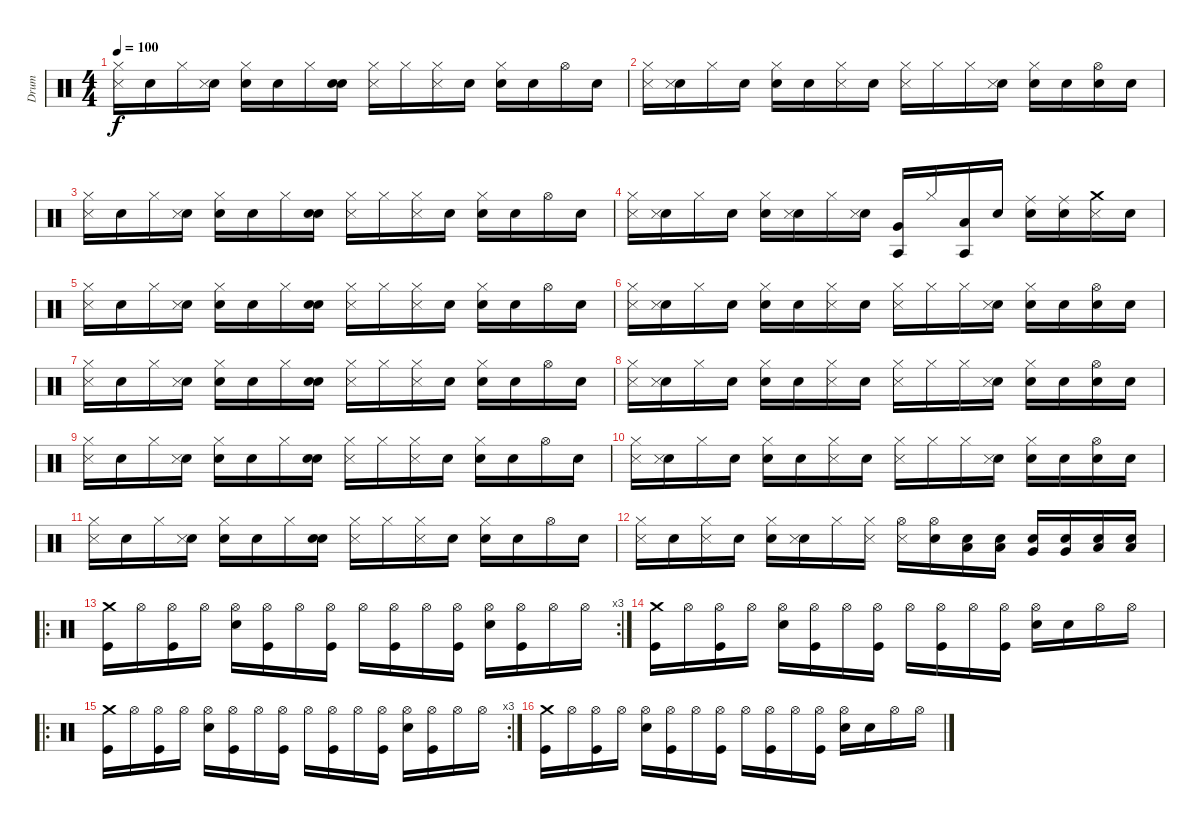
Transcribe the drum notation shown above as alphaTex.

\track ("Drum" "Drum") {instrument percussion}
\staff {score}
\articulation defaults
\ts (4 4)
\tempo 100
\clef neutral
\ks c
("Hi-Hat (closed)" "Metronome (hit)").16{dy f} "Snare (hit)".16 "Hi-Hat (closed)".16 ("Snare (hit)" "Metronome (hit)").16 ("Hi-Hat (closed)" "Metronome (bell)").16 "Snare (hit)".16 "Hi-Hat (closed)".16 ("Snare (hit)" "Metronome (bell)").16 ("Hi-Hat (closed)" "Metronome (hit)").16 "Hi-Hat (closed)".16 ("Hi-Hat (closed)" "Metronome (hit)").16 "Snare (hit)".16 ("Hi-Hat (closed)" "Metronome (bell)").16 "Snare (hit)".16 "Hi-Hat (open)".16 "Snare (hit)".16 |
("Hi-Hat (closed)" "Metronome (hit)").16 ("Snare (hit)" "Metronome (hit)").16 "Hi-Hat (closed)".16 "Snare (hit)".16 ("Hi-Hat (closed)" "Metronome (bell)").16 "Snare (hit)".16 ("Hi-Hat (closed)" "Metronome (hit)").16 "Snare (hit)".16 ("Hi-Hat (closed)" "Metronome (hit)").16 "Hi-Hat (closed)".16 "Hi-Hat (closed)".16 ("Snare (hit)" "Metronome (hit)").16 ("Hi-Hat (closed)" "Metronome (bell)").16 "Snare (hit)".16 ("Hi-Hat (open)" "Metronome (bell)").16 "Snare (hit)".16 |
("Hi-Hat (closed)" "Metronome (hit)").16 "Snare (hit)".16 "Hi-Hat (closed)".16 ("Snare (hit)" "Metronome (hit)").16 ("Hi-Hat (closed)" "Metronome (bell)").16 "Snare (hit)".16 "Hi-Hat (closed)".16 ("Snare (hit)" "Metronome (bell)").16 ("Hi-Hat (closed)" "Metronome (hit)").16 "Hi-Hat (closed)".16 ("Hi-Hat (closed)" "Metronome (hit)").16 "Snare (hit)".16 ("Hi-Hat (closed)" "Metronome (bell)").16 "Snare (hit)".16 "Hi-Hat (open)".16 "Snare (hit)".16 |
("Hi-Hat (closed)" "Metronome (hit)").16 ("Snare (hit)" "Metronome (hit)").16 "Hi-Hat (closed)".16 "Snare (hit)".16 ("Hi-Hat (closed)" "Metronome (bell)").16 ("Snare (hit)" "Metronome (hit)").16 "Hi-Hat (closed)".16 ("Snare (hit)" "Metronome (hit)").16 ("Agogo tow (hit)" "Very Low Tom (hit)").16 "Hi-Hat (closed)".16 ("Agogo tow (hit)" "Low Floor Tom (hit)").16 "Snare (hit)".16 ("Ride (middle)" "Metronome (bell)").16 ("Ride (middle)" "Metronome (bell)").16 ("Crash medium (hit)" "Metronome (hit)").16 "Snare (hit)".16 |
("Hi-Hat (closed)" "Metronome (hit)").16 "Snare (hit)".16 "Hi-Hat (closed)".16 ("Snare (hit)" "Metronome (hit)").16 ("Hi-Hat (closed)" "Metronome (bell)").16 "Snare (hit)".16 "Hi-Hat (closed)".16 ("Snare (hit)" "Metronome (bell)").16 ("Hi-Hat (closed)" "Metronome (hit)").16 "Hi-Hat (closed)".16 ("Hi-Hat (closed)" "Metronome (hit)").16 "Snare (hit)".16 ("Hi-Hat (closed)" "Metronome (bell)").16 "Snare (hit)".16 "Hi-Hat (open)".16 "Snare (hit)".16 |
("Hi-Hat (closed)" "Metronome (hit)").16 ("Snare (hit)" "Metronome (hit)").16 "Hi-Hat (closed)".16 "Snare (hit)".16 ("Hi-Hat (closed)" "Metronome (bell)").16 "Snare (hit)".16 ("Hi-Hat (closed)" "Metronome (hit)").16 "Snare (hit)".16 ("Hi-Hat (closed)" "Metronome (hit)").16 "Hi-Hat (closed)".16 "Hi-Hat (closed)".16 ("Snare (hit)" "Metronome (hit)").16 ("Hi-Hat (closed)" "Metronome (bell)").16 "Snare (hit)".16 ("Hi-Hat (open)" "Metronome (bell)").16 "Snare (hit)".16 |
("Hi-Hat (closed)" "Metronome (hit)").16 "Snare (hit)".16 "Hi-Hat (closed)".16 ("Snare (hit)" "Metronome (hit)").16 ("Hi-Hat (closed)" "Metronome (bell)").16 "Snare (hit)".16 "Hi-Hat (closed)".16 ("Snare (hit)" "Metronome (bell)").16 ("Hi-Hat (closed)" "Metronome (hit)").16 "Hi-Hat (closed)".16 ("Hi-Hat (closed)" "Metronome (hit)").16 "Snare (hit)".16 ("Hi-Hat (closed)" "Metronome (bell)").16 "Snare (hit)".16 "Hi-Hat (open)".16 "Snare (hit)".16 |
("Hi-Hat (closed)" "Metronome (hit)").16 ("Snare (hit)" "Metronome (hit)").16 "Hi-Hat (closed)".16 "Snare (hit)".16 ("Hi-Hat (closed)" "Metronome (bell)").16 "Snare (hit)".16 ("Hi-Hat (closed)" "Metronome (hit)").16 "Snare (hit)".16 ("Hi-Hat (closed)" "Metronome (hit)").16 "Hi-Hat (closed)".16 "Hi-Hat (closed)".16 ("Snare (hit)" "Metronome (hit)").16 ("Hi-Hat (closed)" "Metronome (bell)").16 "Snare (hit)".16 ("Hi-Hat (open)" "Metronome (bell)").16 "Snare (hit)".16 |
("Hi-Hat (closed)" "Metronome (hit)").16 "Snare (hit)".16 "Hi-Hat (closed)".16 ("Snare (hit)" "Metronome (hit)").16 ("Hi-Hat (closed)" "Metronome (bell)").16 "Snare (hit)".16 "Hi-Hat (closed)".16 ("Snare (hit)" "Metronome (bell)").16 ("Hi-Hat (closed)" "Metronome (hit)").16 "Hi-Hat (closed)".16 ("Hi-Hat (closed)" "Metronome (hit)").16 "Snare (hit)".16 ("Hi-Hat (closed)" "Metronome (bell)").16 "Snare (hit)".16 "Hi-Hat (open)".16 "Snare (hit)".16 |
("Hi-Hat (closed)" "Metronome (hit)").16 ("Snare (hit)" "Metronome (hit)").16 "Hi-Hat (closed)".16 "Snare (hit)".16 ("Hi-Hat (closed)" "Metronome (bell)").16 "Snare (hit)".16 ("Hi-Hat (closed)" "Metronome (hit)").16 "Snare (hit)".16 ("Hi-Hat (closed)" "Metronome (hit)").16 "Hi-Hat (closed)".16 "Hi-Hat (closed)".16 ("Snare (hit)" "Metronome (hit)").16 ("Hi-Hat (closed)" "Metronome (bell)").16 "Snare (hit)".16 ("Hi-Hat (open)" "Metronome (bell)").16 "Snare (hit)".16 |
("Hi-Hat (closed)" "Metronome (hit)").16 "Snare (hit)".16 "Hi-Hat (closed)".16 ("Snare (hit)" "Metronome (hit)").16 ("Hi-Hat (closed)" "Metronome (bell)").16 "Snare (hit)".16 "Hi-Hat (closed)".16 ("Snare (hit)" "Metronome (bell)").16 ("Hi-Hat (closed)" "Metronome (hit)").16 "Hi-Hat (closed)".16 ("Hi-Hat (closed)" "Metronome (hit)").16 "Snare (hit)".16 ("Hi-Hat (closed)" "Metronome (bell)").16 "Snare (hit)".16 "Hi-Hat (open)".16 "Snare (hit)".16 |
("Hi-Hat (closed)" "Metronome (hit)").16 "Snare (hit)".16 ("Hi-Hat (closed)" "Metronome (hit)").16 "Snare (hit)".16 ("Hi-Hat (closed)" "Metronome (bell)").16 ("Snare (hit)" "Metronome (hit)").16 "Hi-Hat (closed)".16 ("Hi-Hat (closed)" "Metronome (hit)").16 ("Hi-Hat (open)" "Metronome (hit)").16 ("Hi-Hat (open)" "Metronome (bell)").16 ("Snare (hit)" "Low Tom (hit)").16 ("Snare (hit)" "Low Tom (hit)").16 ("Snare (hit)" "Very Low Tom (hit)").16 ("Snare (hit)" "Very Low Tom (hit)").16 ("Snare (hit)" "Low Floor Tom (hit)").16 ("Snare (hit)" "Low Floor Tom (hit)").16 |
\ro
\rc 3
("Crash medium (hit)" "Kick (hit)").16 "Hi-Hat (open)".16 ("Hi-Hat (open)" "Kick (hit)").16 "Hi-Hat (open)".16 ("Hi-Hat (open)" "Electric Snare (hit)").16 ("Hi-Hat (open)" "Kick (hit)").16 "Hi-Hat (open)".16 ("Hi-Hat (open)" "Kick (hit)").16 "Hi-Hat (open)".16 ("Hi-Hat (open)" "Kick (hit)").16 "Hi-Hat (open)".16 ("Hi-Hat (open)" "Kick (hit)").16 ("Hi-Hat (open)" "Electric Snare (hit)").16 ("Hi-Hat (open)" "Kick (hit)").16 "Hi-Hat (open)".16 "Hi-Hat (open)".16 |
("Crash medium (hit)" "Kick (hit)").16 "Hi-Hat (open)".16 ("Hi-Hat (open)" "Kick (hit)").16 "Hi-Hat (open)".16 ("Hi-Hat (open)" "Electric Snare (hit)").16 ("Hi-Hat (open)" "Kick (hit)").16 "Hi-Hat (open)".16 ("Hi-Hat (open)" "Kick (hit)").16 "Hi-Hat (open)".16 ("Hi-Hat (open)" "Kick (hit)").16 "Hi-Hat (open)".16 ("Hi-Hat (open)" "Kick (hit)").16 ("Hi-Hat (open)" "Electric Snare (hit)").16 "Snare (hit)".16 "Hi-Hat (open)".16 "Hi-Hat (open)".16 |
\ro
\rc 3
("Crash medium (hit)" "Kick (hit)").16 "Hi-Hat (open)".16 ("Hi-Hat (open)" "Kick (hit)").16 "Hi-Hat (open)".16 ("Hi-Hat (open)" "Electric Snare (hit)").16 ("Hi-Hat (open)" "Kick (hit)").16 "Hi-Hat (open)".16 ("Hi-Hat (open)" "Kick (hit)").16 "Hi-Hat (open)".16 ("Hi-Hat (open)" "Kick (hit)").16 "Hi-Hat (open)".16 ("Hi-Hat (open)" "Kick (hit)").16 ("Hi-Hat (open)" "Electric Snare (hit)").16 ("Hi-Hat (open)" "Kick (hit)").16 "Hi-Hat (open)".16 "Hi-Hat (open)".16 |
("Crash medium (hit)" "Kick (hit)").16 "Hi-Hat (open)".16 ("Hi-Hat (open)" "Kick (hit)").16 "Hi-Hat (open)".16 ("Hi-Hat (open)" "Electric Snare (hit)").16 ("Hi-Hat (open)" "Kick (hit)").16 "Hi-Hat (open)".16 ("Hi-Hat (open)" "Kick (hit)").16 "Hi-Hat (open)".16 ("Hi-Hat (open)" "Kick (hit)").16 "Hi-Hat (open)".16 ("Hi-Hat (open)" "Kick (hit)").16 ("Hi-Hat (open)" "Electric Snare (hit)").16 "Snare (hit)".16 "Hi-Hat (open)".16 "Hi-Hat (open)".16
